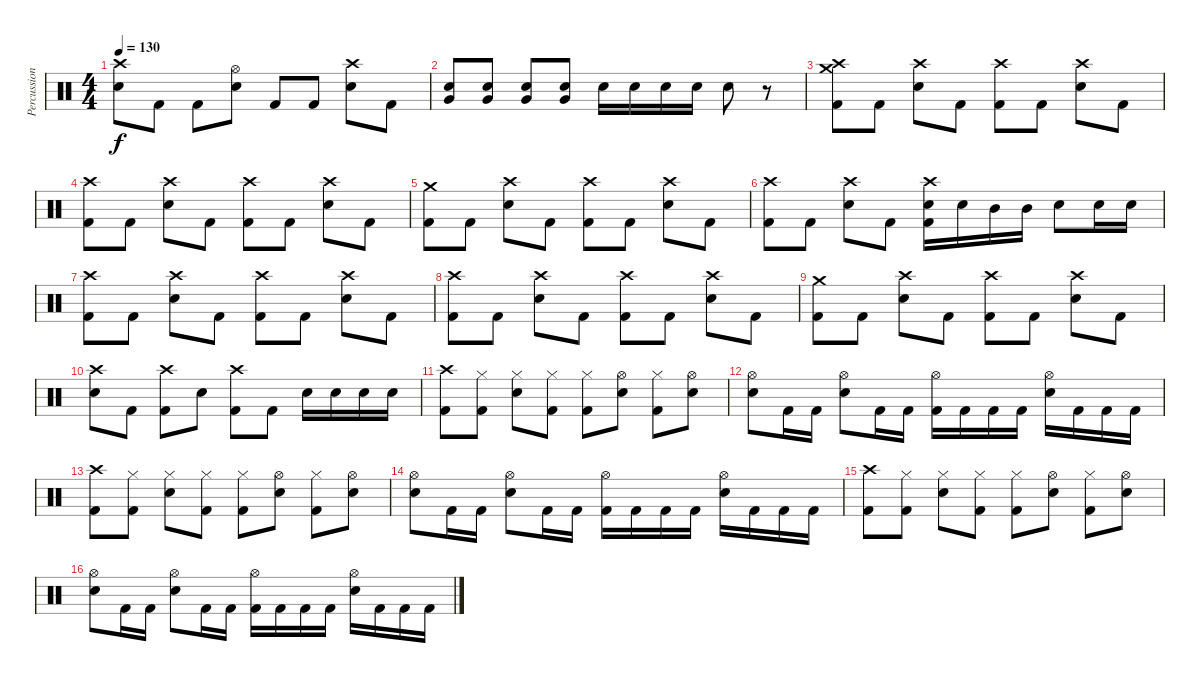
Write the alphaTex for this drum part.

\track ("Percussion" "Percussion") {instrument percussion}
\staff {score}
\articulation defaults
\ts (4 4)
\tempo 130
\clef neutral
\ks c
("Crash high (hit)" "Electric Snare (hit)").8{dy f} "Kick (hit) 2".8 "Kick (hit) 2".8 ("Hi-Hat (open)" "Electric Snare (hit)").8 "Kick (hit) 2".8 "Kick (hit) 2".8 ("Crash high (hit)" "Electric Snare (hit)").8 "Kick (hit) 2".8 |
("Very Low Tom (hit)" "Electric Snare (hit)").8 ("Very Low Tom (hit)" "Electric Snare (hit)").8 ("Very Low Tom (hit)" "Electric Snare (hit)").8 ("Very Low Tom (hit)" "Electric Snare (hit)").8 "Electric Snare (hit)".16 "Electric Snare (hit)".16 "Electric Snare (hit)".16 "Electric Snare (hit)".16 "Electric Snare (hit)".8 r.8 |
("Crash high (hit)" "Crash medium (hit)" "Kick (hit) 2").8 "Kick (hit) 2".8 ("Crash high (hit)" "Electric Snare (hit)").8 "Kick (hit) 2".8 ("Crash high (hit)" "Kick (hit) 2").8 "Kick (hit) 2".8 ("Crash high (hit)" "Electric Snare (hit)").8 "Kick (hit) 2".8 |
("Crash high (hit)" "Kick (hit) 2").8 "Kick (hit) 2".8 ("Crash high (hit)" "Electric Snare (hit)").8 "Kick (hit) 2".8 ("Crash high (hit)" "Kick (hit) 2").8 "Kick (hit) 2".8 ("Crash high (hit)" "Electric Snare (hit)").8 "Kick (hit) 2".8 |
("Crash medium (hit)" "Kick (hit) 2").8 "Kick (hit) 2".8 ("Crash high (hit)" "Electric Snare (hit)").8 "Kick (hit) 2".8 ("Crash high (hit)" "Kick (hit) 2").8 "Kick (hit) 2".8 ("Crash high (hit)" "Electric Snare (hit)").8 "Kick (hit) 2".8 |
("Crash high (hit)" "Kick (hit) 2").8 "Kick (hit) 2".8 ("Crash high (hit)" "Electric Snare (hit)").8 "Kick (hit) 2".8 ("Crash high (hit)" "Electric Snare (hit)" "Kick (hit) 2").16 "Electric Snare (hit)".16 "Mid Tom (hit)".16 "Mid Tom (hit)".16 "Electric Snare (hit)".8 "Electric Snare (hit)".16 "Electric Snare (hit)".16 |
("Crash high (hit)" "Kick (hit) 2").8 "Kick (hit) 2".8 ("Crash high (hit)" "Electric Snare (hit)").8 "Kick (hit) 2".8 ("Crash high (hit)" "Kick (hit) 2").8 "Kick (hit) 2".8 ("Crash high (hit)" "Electric Snare (hit)").8 "Kick (hit) 2".8 |
("Crash high (hit)" "Kick (hit) 2").8 "Kick (hit) 2".8 ("Crash high (hit)" "Electric Snare (hit)").8 "Kick (hit) 2".8 ("Crash high (hit)" "Kick (hit) 2").8 "Kick (hit) 2".8 ("Crash high (hit)" "Electric Snare (hit)").8 "Kick (hit) 2".8 |
("Crash medium (hit)" "Kick (hit) 2").8 "Kick (hit) 2".8 ("Crash high (hit)" "Electric Snare (hit)").8 "Kick (hit) 2".8 ("Crash high (hit)" "Kick (hit) 2").8 "Kick (hit) 2".8 ("Crash high (hit)" "Electric Snare (hit)").8 "Kick (hit) 2".8 |
("Crash high (hit)" "Electric Snare (hit)").8 "Kick (hit) 2".8 ("Crash high (hit)" "Kick (hit) 2").8 "Electric Snare (hit)".8 ("Crash high (hit)" "Kick (hit) 2").8 "Kick (hit) 2".8 "Electric Snare (hit)".16 "Electric Snare (hit)".16 "Electric Snare (hit)".16 "Electric Snare (hit)".16 |
("Crash high (hit)" "Kick (hit) 2").8 ("Hi-Hat (closed)" "Kick (hit) 2").8 ("Hi-Hat (closed)" "Electric Snare (hit)").8 ("Hi-Hat (closed)" "Kick (hit) 2").8 ("Hi-Hat (closed)" "Kick (hit) 2").8 ("Hi-Hat (open)" "Electric Snare (hit)").8 ("Hi-Hat (closed)" "Kick (hit) 2").8 ("Hi-Hat (open)" "Electric Snare (hit)").8 |
("Hi-Hat (open)" "Electric Snare (hit)").8 "Kick (hit) 2".16 "Kick (hit) 2".16 ("Hi-Hat (open)" "Electric Snare (hit)").8 "Kick (hit) 2".16 "Kick (hit) 2".16 ("Hi-Hat (open)" "Kick (hit) 2").16 "Kick (hit) 2".16 "Kick (hit) 2".16 "Kick (hit) 2".16 ("Hi-Hat (open)" "Electric Snare (hit)").16 "Kick (hit) 2".16 "Kick (hit) 2".16 "Kick (hit) 2".16 |
("Crash high (hit)" "Kick (hit) 2").8 ("Hi-Hat (closed)" "Kick (hit) 2").8 ("Hi-Hat (closed)" "Electric Snare (hit)").8 ("Hi-Hat (closed)" "Kick (hit) 2").8 ("Hi-Hat (closed)" "Kick (hit) 2").8 ("Hi-Hat (open)" "Electric Snare (hit)").8 ("Hi-Hat (closed)" "Kick (hit) 2").8 ("Hi-Hat (open)" "Electric Snare (hit)").8 |
("Hi-Hat (open)" "Electric Snare (hit)").8 "Kick (hit) 2".16 "Kick (hit) 2".16 ("Hi-Hat (open)" "Electric Snare (hit)").8 "Kick (hit) 2".16 "Kick (hit) 2".16 ("Hi-Hat (open)" "Kick (hit) 2").16 "Kick (hit) 2".16 "Kick (hit) 2".16 "Kick (hit) 2".16 ("Hi-Hat (open)" "Electric Snare (hit)").16 "Kick (hit) 2".16 "Kick (hit) 2".16 "Kick (hit) 2".16 |
("Crash high (hit)" "Kick (hit) 2").8 ("Hi-Hat (closed)" "Kick (hit) 2").8 ("Hi-Hat (closed)" "Electric Snare (hit)").8 ("Hi-Hat (closed)" "Kick (hit) 2").8 ("Hi-Hat (closed)" "Kick (hit) 2").8 ("Hi-Hat (open)" "Electric Snare (hit)").8 ("Hi-Hat (closed)" "Kick (hit) 2").8 ("Hi-Hat (open)" "Electric Snare (hit)").8 |
("Hi-Hat (open)" "Electric Snare (hit)").8 "Kick (hit) 2".16 "Kick (hit) 2".16 ("Hi-Hat (open)" "Electric Snare (hit)").8 "Kick (hit) 2".16 "Kick (hit) 2".16 ("Hi-Hat (open)" "Kick (hit) 2").16 "Kick (hit) 2".16 "Kick (hit) 2".16 "Kick (hit) 2".16 ("Hi-Hat (open)" "Electric Snare (hit)").16 "Kick (hit) 2".16 "Kick (hit) 2".16 "Kick (hit) 2".16
